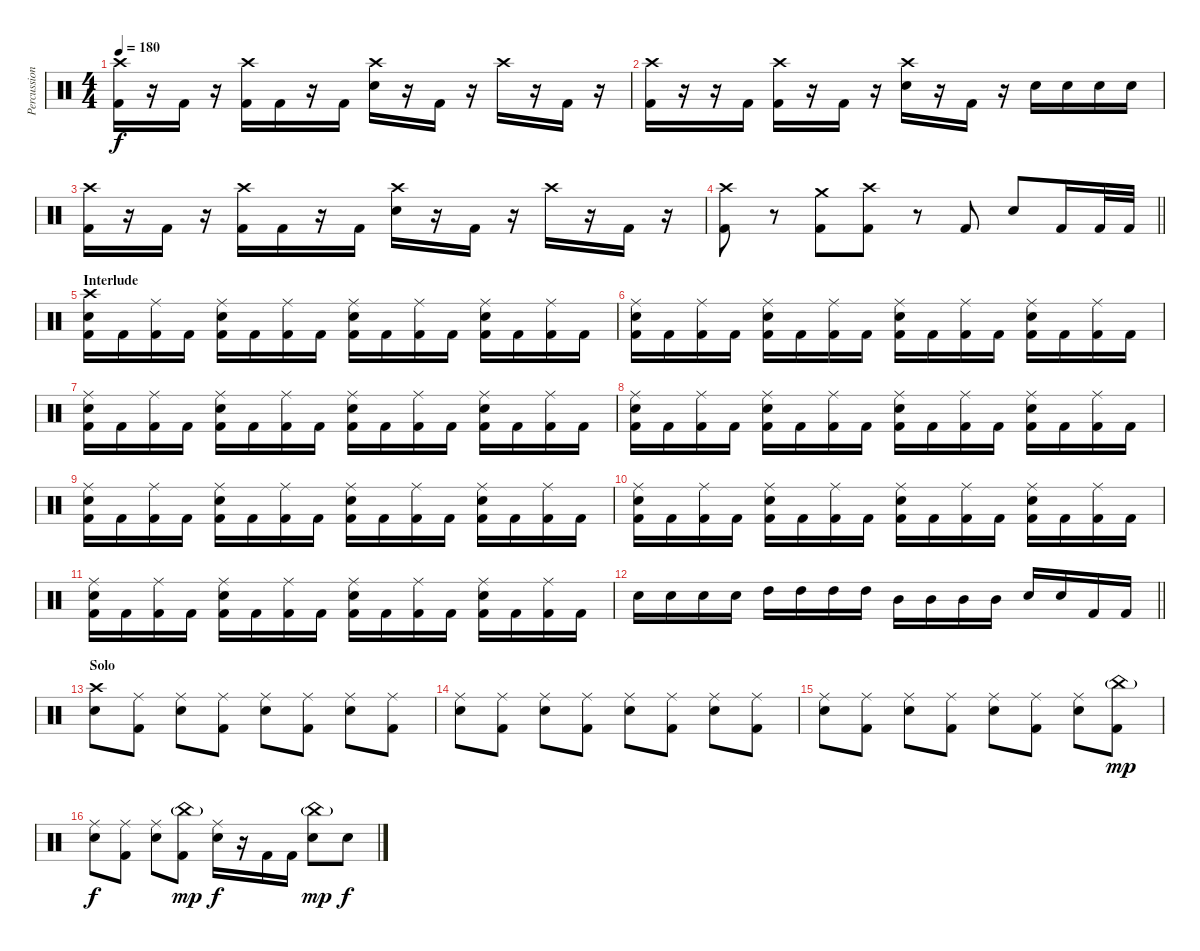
\track ("Percussion" "Percussion") {instrument percussion}
\staff {score}
\articulation defaults
\ts (4 4)
\tempo 180
\clef neutral
\ks c
("Crash high (hit)" "Kick (hit) 2").16{dy f} r.16 "Kick (hit) 2".16 r.16 ("Crash high (hit)" "Kick (hit) 2").16 "Kick (hit) 2".16 r.16 "Kick (hit) 2".16 ("Crash high (hit)" "Electric Snare (hit)").16 r.16 "Kick (hit) 2".16 r.16 "Crash high (hit)".16 r.16 "Kick (hit) 2".16 r.16 |
("Crash high (hit)" "Kick (hit) 2").16 r.16 r.16 "Kick (hit) 2".16 ("Crash high (hit)" "Kick (hit) 2").16 r.16 "Kick (hit) 2".16 r.16 ("Crash high (hit)" "Electric Snare (hit)").16 r.16 "Kick (hit) 2".16 r.16 "Electric Snare (hit)".16 "Electric Snare (hit)".16 "Electric Snare (hit)".16 "Electric Snare (hit)".16 |
("Crash high (hit)" "Kick (hit) 2").16 r.16 "Kick (hit) 2".16 r.16 ("Crash high (hit)" "Kick (hit) 2").16 "Kick (hit) 2".16 r.16 "Kick (hit) 2".16 ("Crash high (hit)" "Electric Snare (hit)").16 r.16 "Kick (hit) 2".16 r.16 "Crash high (hit)".16 r.16 "Kick (hit) 2".16 r.16 |
\barLineRight lightlight
("Crash high (hit)" "Kick (hit) 2").8 r.8 ("Crash medium (hit)" "Kick (hit) 2").8 ("Crash high (hit)" "Kick (hit) 2").8 r.8 "Kick (hit) 2".8 "Electric Snare (hit)".8 "Kick (hit) 2".16 "Kick (hit) 2".32 "Kick (hit) 2".32 |
\section ("" "Interlude")
("Crash high (hit)" "Electric Snare (hit)" "Kick (hit) 2").16 "Kick (hit) 2".16 ("Ride (middle)" "Kick (hit) 2").16 "Kick (hit) 2".16 ("Ride (middle)" "Electric Snare (hit)" "Kick (hit) 2").16 "Kick (hit) 2".16 ("Ride (middle)" "Kick (hit) 2").16 "Kick (hit) 2".16 ("Ride (middle)" "Electric Snare (hit)" "Kick (hit) 2").16 "Kick (hit) 2".16 ("Ride (middle)" "Kick (hit) 2").16 "Kick (hit) 2".16 ("Ride (middle)" "Electric Snare (hit)" "Kick (hit) 2").16 "Kick (hit) 2".16 ("Ride (middle)" "Kick (hit) 2").16 "Kick (hit) 2".16 |
("Ride (middle)" "Electric Snare (hit)" "Kick (hit) 2").16 "Kick (hit) 2".16 ("Ride (middle)" "Kick (hit) 2").16 "Kick (hit) 2".16 ("Ride (middle)" "Electric Snare (hit)" "Kick (hit) 2").16 "Kick (hit) 2".16 ("Ride (middle)" "Kick (hit) 2").16 "Kick (hit) 2".16 ("Ride (middle)" "Electric Snare (hit)" "Kick (hit) 2").16 "Kick (hit) 2".16 ("Ride (middle)" "Kick (hit) 2").16 "Kick (hit) 2".16 ("Ride (middle)" "Electric Snare (hit)" "Kick (hit) 2").16 "Kick (hit) 2".16 ("Ride (middle)" "Kick (hit) 2").16 "Kick (hit) 2".16 |
("Ride (middle)" "Electric Snare (hit)" "Kick (hit) 2").16 "Kick (hit) 2".16 ("Ride (middle)" "Kick (hit) 2").16 "Kick (hit) 2".16 ("Ride (middle)" "Electric Snare (hit)" "Kick (hit) 2").16 "Kick (hit) 2".16 ("Ride (middle)" "Kick (hit) 2").16 "Kick (hit) 2".16 ("Ride (middle)" "Electric Snare (hit)" "Kick (hit) 2").16 "Kick (hit) 2".16 ("Ride (middle)" "Kick (hit) 2").16 "Kick (hit) 2".16 ("Ride (middle)" "Electric Snare (hit)" "Kick (hit) 2").16 "Kick (hit) 2".16 ("Ride (middle)" "Kick (hit) 2").16 "Kick (hit) 2".16 |
("Ride (middle)" "Electric Snare (hit)" "Kick (hit) 2").16 "Kick (hit) 2".16 ("Ride (middle)" "Kick (hit) 2").16 "Kick (hit) 2".16 ("Ride (middle)" "Electric Snare (hit)" "Kick (hit) 2").16 "Kick (hit) 2".16 ("Ride (middle)" "Kick (hit) 2").16 "Kick (hit) 2".16 ("Ride (middle)" "Electric Snare (hit)" "Kick (hit) 2").16 "Kick (hit) 2".16 ("Ride (middle)" "Kick (hit) 2").16 "Kick (hit) 2".16 ("Ride (middle)" "Electric Snare (hit)" "Kick (hit) 2").16 "Kick (hit) 2".16 ("Ride (middle)" "Kick (hit) 2").16 "Kick (hit) 2".16 |
("Ride (middle)" "Electric Snare (hit)" "Kick (hit) 2").16 "Kick (hit) 2".16 ("Ride (middle)" "Kick (hit) 2").16 "Kick (hit) 2".16 ("Ride (middle)" "Electric Snare (hit)" "Kick (hit) 2").16 "Kick (hit) 2".16 ("Ride (middle)" "Kick (hit) 2").16 "Kick (hit) 2".16 ("Ride (middle)" "Electric Snare (hit)" "Kick (hit) 2").16 "Kick (hit) 2".16 ("Ride (middle)" "Kick (hit) 2").16 "Kick (hit) 2".16 ("Ride (middle)" "Electric Snare (hit)" "Kick (hit) 2").16 "Kick (hit) 2".16 ("Ride (middle)" "Kick (hit) 2").16 "Kick (hit) 2".16 |
("Ride (middle)" "Electric Snare (hit)" "Kick (hit) 2").16 "Kick (hit) 2".16 ("Ride (middle)" "Kick (hit) 2").16 "Kick (hit) 2".16 ("Ride (middle)" "Electric Snare (hit)" "Kick (hit) 2").16 "Kick (hit) 2".16 ("Ride (middle)" "Kick (hit) 2").16 "Kick (hit) 2".16 ("Ride (middle)" "Electric Snare (hit)" "Kick (hit) 2").16 "Kick (hit) 2".16 ("Ride (middle)" "Kick (hit) 2").16 "Kick (hit) 2".16 ("Ride (middle)" "Electric Snare (hit)" "Kick (hit) 2").16 "Kick (hit) 2".16 ("Ride (middle)" "Kick (hit) 2").16 "Kick (hit) 2".16 |
("Ride (middle)" "Electric Snare (hit)" "Kick (hit) 2").16 "Kick (hit) 2".16 ("Ride (middle)" "Kick (hit) 2").16 "Kick (hit) 2".16 ("Ride (middle)" "Electric Snare (hit)" "Kick (hit) 2").16 "Kick (hit) 2".16 ("Ride (middle)" "Kick (hit) 2").16 "Kick (hit) 2".16 ("Ride (middle)" "Electric Snare (hit)" "Kick (hit) 2").16 "Kick (hit) 2".16 ("Ride (middle)" "Kick (hit) 2").16 "Kick (hit) 2".16 ("Ride (middle)" "Electric Snare (hit)" "Kick (hit) 2").16 "Kick (hit) 2".16 ("Ride (middle)" "Kick (hit) 2").16 "Kick (hit) 2".16 |
\barLineRight lightlight "Electric Snare (hit)".16 "Electric Snare (hit)".16 "Electric Snare (hit)".16 "Electric Snare (hit)".16 "High Tom (hit)".16 "High Tom (hit)".16 "High Tom (hit)".16 "High Tom (hit)".16 "Mid Tom (hit)".16 "Mid Tom (hit)".16 "Mid Tom (hit)".16 "Mid Tom (hit)".16 "Electric Snare (hit)".16 "Electric Snare (hit)".16 "Kick (hit) 2".16 "Kick (hit) 2".16
|
\section ("" "Solo")
("Crash high (hit)" "Electric Snare (hit)").8 ("Ride (middle)" "Kick (hit) 2").8 ("Ride (middle)" "Electric Snare (hit)").8 ("Ride (middle)" "Kick (hit) 2").8 ("Ride (middle)" "Electric Snare (hit)").8 ("Ride (middle)" "Kick (hit) 2").8 ("Ride (middle)" "Electric Snare (hit)").8 ("Ride (middle)" "Kick (hit) 2").8 |
("Ride (middle)" "Electric Snare (hit)").8 ("Ride (middle)" "Kick (hit) 2").8 ("Ride (middle)" "Electric Snare (hit)").8 ("Ride (middle)" "Kick (hit) 2").8 ("Ride (middle)" "Electric Snare (hit)").8 ("Ride (middle)" "Kick (hit) 2").8 ("Ride (middle)" "Electric Snare (hit)").8 ("Ride (middle)" "Kick (hit) 2").8 |
("Ride (middle)" "Electric Snare (hit)").8 ("Ride (middle)" "Kick (hit) 2").8 ("Ride (middle)" "Electric Snare (hit)").8 ("Ride (middle)" "Kick (hit) 2").8 ("Ride (middle)" "Electric Snare (hit)").8 ("Ride (middle)" "Kick (hit) 2").8 ("Ride (middle)" "Electric Snare (hit)").8 ("China (hit)"{g} "Kick (hit) 2").8{dy mp} |
("Ride (middle)" "Electric Snare (hit)").8{dy f} ("Ride (middle)" "Kick (hit) 2").8 ("Ride (middle)" "Electric Snare (hit)").8 ("China (hit)"{g} "Kick (hit) 2").8{dy mp} ("Ride (middle)" "Electric Snare (hit)").16{dy f} r.16 "Kick (hit) 2".16 "Kick (hit) 2".16 ("China (hit)"{g} "Electric Snare (hit)").8{dy mp} "Electric Snare (hit)".8{dy f}
